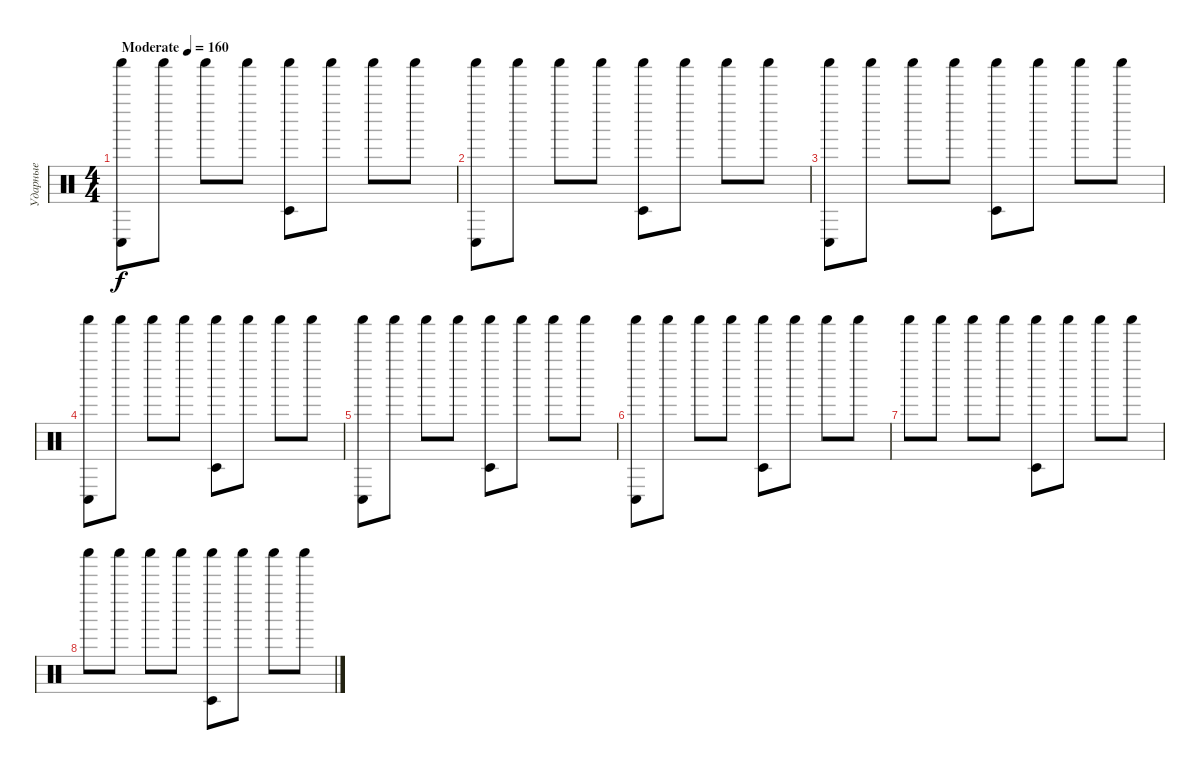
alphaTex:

\track ("Ударные" "Ударные") {mute instrument percussion}
\staff {score}
\articulation defaults
\ts (4 4)
\tempo (160 "Moderate")
\clef neutral
\ks c
("Conga low (hit)" "Shaker (hit)").8{dy f} "Shaker (hit)".8 "Shaker (hit)".8 "Shaker (hit)".8 ("Timbale low (hit)" "Shaker (hit)").8 "Shaker (hit)".8 "Shaker (hit)".8 "Shaker (hit)".8 |
("Conga low (hit)" "Shaker (hit)").8 "Shaker (hit)".8 "Shaker (hit)".8 "Shaker (hit)".8 ("Timbale low (hit)" "Shaker (hit)").8 "Shaker (hit)".8 "Shaker (hit)".8 "Shaker (hit)".8 |
("Conga low (hit)" "Shaker (hit)").8 "Shaker (hit)".8 "Shaker (hit)".8 "Shaker (hit)".8 ("Timbale low (hit)" "Shaker (hit)").8 "Shaker (hit)".8 "Shaker (hit)".8 "Shaker (hit)".8 |
("Conga low (hit)" "Shaker (hit)").8 "Shaker (hit)".8 "Shaker (hit)".8 "Shaker (hit)".8 ("Timbale low (hit)" "Shaker (hit)").8 "Shaker (hit)".8 "Shaker (hit)".8 "Shaker (hit)".8 |
("Conga low (hit)" "Shaker (hit)").8 "Shaker (hit)".8 "Shaker (hit)".8 "Shaker (hit)".8 ("Timbale low (hit)" "Shaker (hit)").8 "Shaker (hit)".8 "Shaker (hit)".8 "Shaker (hit)".8 |
("Conga low (hit)" "Shaker (hit)").8 "Shaker (hit)".8 "Shaker (hit)".8 "Shaker (hit)".8 ("Timbale low (hit)" "Shaker (hit)").8 "Shaker (hit)".8 "Shaker (hit)".8 "Shaker (hit)".8 |
"Shaker (hit)".8 "Shaker (hit)".8 "Shaker (hit)".8 "Shaker (hit)".8 ("Timbale low (hit)" "Shaker (hit)").8 "Shaker (hit)".8 "Shaker (hit)".8 "Shaker (hit)".8 |
"Shaker (hit)".8 "Shaker (hit)".8 "Shaker (hit)".8 "Shaker (hit)".8 ("Timbale low (hit)" "Shaker (hit)").8 "Shaker (hit)".8 "Shaker (hit)".8 "Shaker (hit)".8
